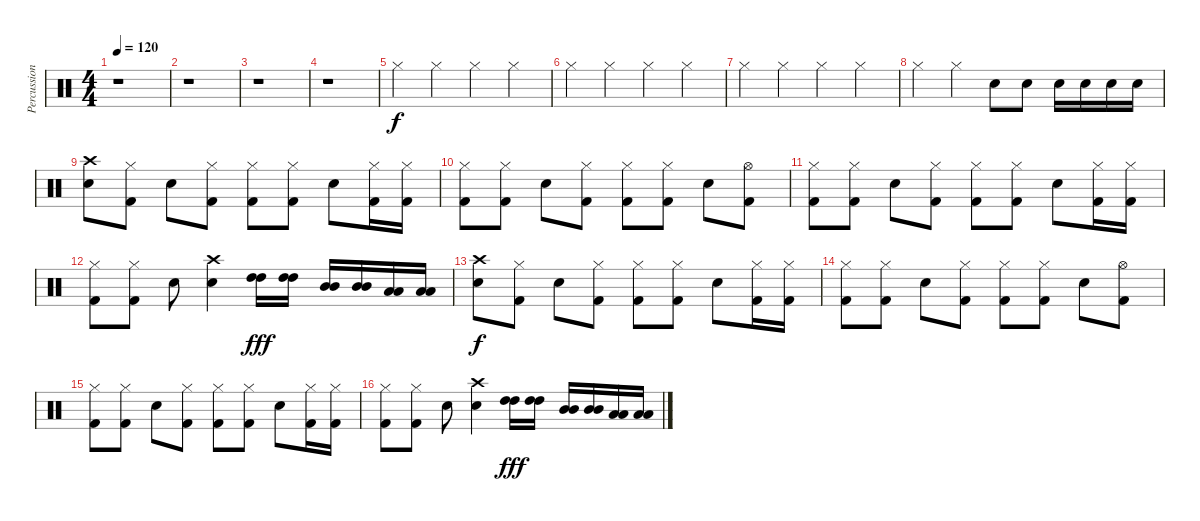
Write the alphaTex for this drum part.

\track ("Percussions" "Percussion") {instrument percussion}
\staff {score}
\articulation defaults
\ts (4 4)
\tempo 120
\clef neutral
\ks c
r.1{dy f} |
r.1 |
r.1 |
r.1 |
"Hi-Hat (closed)".4 "Hi-Hat (closed)".4 "Hi-Hat (closed)".4 "Hi-Hat (closed)".4 |
"Hi-Hat (closed)".4 "Hi-Hat (closed)".4 "Hi-Hat (closed)".4 "Hi-Hat (closed)".4 |
"Hi-Hat (closed)".4 "Hi-Hat (closed)".4 "Hi-Hat (closed)".4 "Hi-Hat (closed)".4 |
"Hi-Hat (closed)".4 "Hi-Hat (closed)".4 "Snare (hit) 2".8 "Snare (hit) 2".8 "Snare (hit) 2".16 "Snare (hit) 2".16 "Snare (hit) 2".16 "Snare (hit) 2".16 |
("Crash high (hit)" "Snare (hit) 2").8 ("Hi-Hat (closed)" "Kick (hit) 2").8 "Snare (hit) 2".8 ("Hi-Hat (closed)" "Kick (hit) 2").8 ("Hi-Hat (closed)" "Kick (hit) 2").8 ("Hi-Hat (closed)" "Kick (hit) 2").8 "Snare (hit) 2".8 ("Hi-Hat (closed)" "Kick (hit) 2").16 ("Hi-Hat (closed)" "Kick (hit) 2").16 |
("Hi-Hat (closed)" "Kick (hit) 2").8 ("Hi-Hat (closed)" "Kick (hit) 2").8 "Snare (hit) 2".8 ("Hi-Hat (closed)" "Kick (hit) 2").8 ("Hi-Hat (closed)" "Kick (hit) 2").8 ("Hi-Hat (closed)" "Kick (hit) 2").8 "Snare (hit) 2".8 ("Hi-Hat (open)" "Kick (hit) 2").8 |
("Hi-Hat (closed)" "Kick (hit) 2").8 ("Hi-Hat (closed)" "Kick (hit) 2").8 "Snare (hit) 2".8 ("Hi-Hat (closed)" "Kick (hit) 2").8 ("Hi-Hat (closed)" "Kick (hit) 2").8 ("Hi-Hat (closed)" "Kick (hit) 2").8 "Snare (hit) 2".8 ("Hi-Hat (closed)" "Kick (hit) 2").16 ("Hi-Hat (closed)" "Kick (hit) 2").16 |
("Hi-Hat (closed)" "Kick (hit) 2").8 ("Hi-Hat (closed)" "Kick (hit) 2").8 "Snare (hit) 2".8 ("Crash high (hit)" "Snare (hit) 2").4 ("High Tom (hit)" "High Tom (hit)").16{dy fff} ("High Tom (hit)" "High Tom (hit)").16 ("Mid Tom (hit)" "Mid Tom (hit)").16 ("Mid Tom (hit)" "Mid Tom (hit)").16 ("Low Tom (hit)" "Low Tom (hit)").16 ("Low Tom (hit)" "Low Tom (hit)").16 |
("Crash high (hit)" "Snare (hit) 2").8{dy f} ("Hi-Hat (closed)" "Kick (hit) 2").8 "Snare (hit) 2".8 ("Hi-Hat (closed)" "Kick (hit) 2").8 ("Hi-Hat (closed)" "Kick (hit) 2").8 ("Hi-Hat (closed)" "Kick (hit) 2").8 "Snare (hit) 2".8 ("Hi-Hat (closed)" "Kick (hit) 2").16 ("Hi-Hat (closed)" "Kick (hit) 2").16 |
("Hi-Hat (closed)" "Kick (hit) 2").8 ("Hi-Hat (closed)" "Kick (hit) 2").8 "Snare (hit) 2".8 ("Hi-Hat (closed)" "Kick (hit) 2").8 ("Hi-Hat (closed)" "Kick (hit) 2").8 ("Hi-Hat (closed)" "Kick (hit) 2").8 "Snare (hit) 2".8 ("Hi-Hat (open)" "Kick (hit) 2").8 |
("Hi-Hat (closed)" "Kick (hit) 2").8 ("Hi-Hat (closed)" "Kick (hit) 2").8 "Snare (hit) 2".8 ("Hi-Hat (closed)" "Kick (hit) 2").8 ("Hi-Hat (closed)" "Kick (hit) 2").8 ("Hi-Hat (closed)" "Kick (hit) 2").8 "Snare (hit) 2".8 ("Hi-Hat (closed)" "Kick (hit) 2").16 ("Hi-Hat (closed)" "Kick (hit) 2").16 |
("Hi-Hat (closed)" "Kick (hit) 2").8 ("Hi-Hat (closed)" "Kick (hit) 2").8 "Snare (hit) 2".8 ("Crash high (hit)" "Snare (hit) 2").4 ("High Tom (hit)" "High Tom (hit)").16{dy fff} ("High Tom (hit)" "High Tom (hit)").16 ("Mid Tom (hit)" "Mid Tom (hit)").16 ("Mid Tom (hit)" "Mid Tom (hit)").16 ("Low Tom (hit)" "Low Tom (hit)").16 ("Low Tom (hit)" "Low Tom (hit)").16
